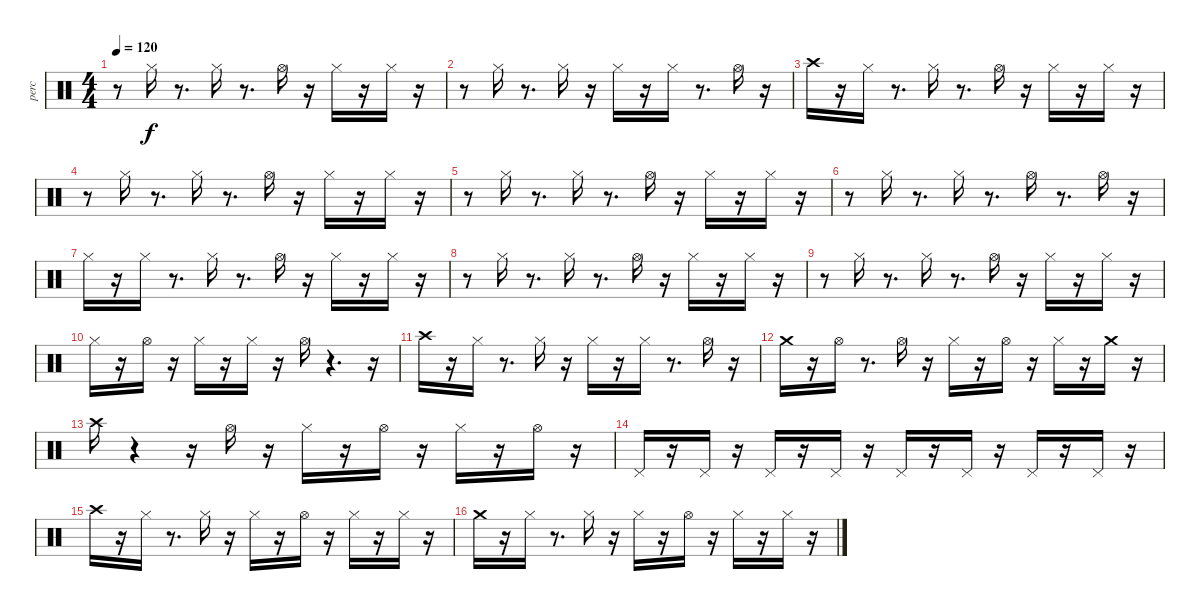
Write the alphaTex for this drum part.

\track ("perc" "perc") {instrument percussion}
\staff {score}
\articulation defaults
\ts (4 4)
\tempo 120
\clef neutral
\ks c
r.8{dy f} "Hi-Hat (closed)".16 r.8{d} "Hi-Hat (closed)".16 r.8{d} "Hi-Hat (open)".16 r.16 "Hi-Hat (closed)".16 r.16 "Hi-Hat (closed)".16 r.16 |
r.8 "Hi-Hat (closed)".16 r.8{d} "Hi-Hat (closed)".16 r.16 "Hi-Hat (closed)".16 r.16 "Hi-Hat (closed)".16 r.8{d} "Hi-Hat (open)".16 r.16 |
"Crash high (hit)".16 r.16 "Hi-Hat (closed)".16 r.8{d} "Hi-Hat (closed)".16 r.8{d} "Hi-Hat (open)".16 r.16 "Hi-Hat (closed)".16 r.16 "Hi-Hat (closed)".16 r.16 |
r.8 "Hi-Hat (closed)".16 r.8{d} "Hi-Hat (closed)".16 r.8{d} "Hi-Hat (open)".16 r.16 "Hi-Hat (closed)".16 r.16 "Hi-Hat (closed)".16 r.16 |
r.8 "Hi-Hat (closed)".16 r.8{d} "Hi-Hat (closed)".16 r.8{d} "Hi-Hat (open)".16 r.16 "Hi-Hat (closed)".16 r.16 "Hi-Hat (closed)".16 r.16 |
r.8 "Hi-Hat (closed)".16 r.8{d} "Hi-Hat (closed)".16 r.8{d} "Hi-Hat (open)".16 r.8{d} "Hi-Hat (open)".16 r.16 |
"Hi-Hat (closed)".16 r.16 "Hi-Hat (closed)".16 r.8{d} "Hi-Hat (closed)".16 r.8{d} "Hi-Hat (open)".16 r.16 "Hi-Hat (closed)".16 r.16 "Hi-Hat (closed)".16 r.16 |
r.8 "Hi-Hat (closed)".16 r.8{d} "Hi-Hat (closed)".16 r.8{d} "Hi-Hat (open)".16 r.16 "Hi-Hat (closed)".16 r.16 "Hi-Hat (closed)".16 r.16 |
r.8 "Hi-Hat (closed)".16 r.8{d} "Hi-Hat (closed)".16 r.8{d} "Hi-Hat (open)".16 r.16 "Hi-Hat (closed)".16 r.16 "Hi-Hat (closed)".16 r.16 |
"Hi-Hat (closed)".16 r.16 "Hi-Hat (open)".16 r.16 "Hi-Hat (closed)".16 r.16 "Hi-Hat (closed)".16 r.16 "Hi-Hat (open)".16 r.4{d} r.16 |
"Crash high (hit)".16 r.16 "Hi-Hat (closed)".16 r.8{d} "Hi-Hat (closed)".16 r.16 "Hi-Hat (closed)".16 r.16 "Hi-Hat (closed)".16 r.8{d} "Hi-Hat (open)".16 r.16 |
"Crash medium (hit)".16 r.16 "Hi-Hat (open)".16 r.8{d} "Hi-Hat (open)".16 r.16 "Hi-Hat (closed)".16 r.16 "Hi-Hat (open)".16 r.16 "Hi-Hat (closed)".16 r.16 "Crash medium (hit)".16 r.16 |
"Crash high (hit)".16 r.4 r.16 "Hi-Hat (open)".16 r.16 "Hi-Hat (closed)".16 r.16 "Hi-Hat (open)".16 r.16 "Hi-Hat (closed)".16 r.16 "Hi-Hat (open)".16 r.16 |
"Pedal Hi-Hat (hit)".16 r.16 "Pedal Hi-Hat (hit)".16 r.16 "Pedal Hi-Hat (hit)".16 r.16 "Pedal Hi-Hat (hit)".16 r.16 "Pedal Hi-Hat (hit)".16 r.16 "Pedal Hi-Hat (hit)".16 r.16 "Pedal Hi-Hat (hit)".16 r.16 "Pedal Hi-Hat (hit)".16 r.16 |
"Crash high (hit)".16 r.16 "Hi-Hat (closed)".16 r.8{d} "Hi-Hat (closed)".16 r.16 "Hi-Hat (closed)".16 r.16 "Hi-Hat (open)".16 r.16 "Hi-Hat (closed)".16 r.16 "Hi-Hat (closed)".16 r.16 |
"Crash medium (hit)".16 r.16 "Hi-Hat (closed)".16 r.8{d} "Hi-Hat (closed)".16 r.16 "Hi-Hat (closed)".16 r.16 "Hi-Hat (open)".16 r.16 "Hi-Hat (closed)".16 r.16 "Hi-Hat (closed)".16 r.16
